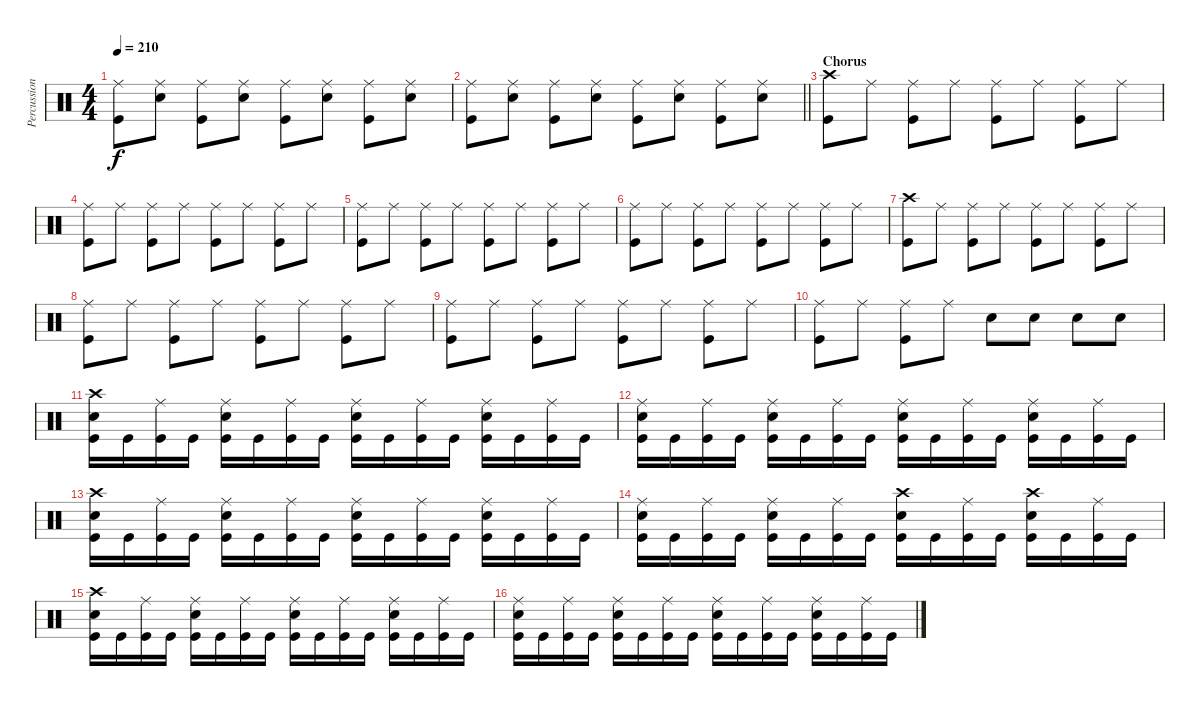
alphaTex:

\track ("Percussion" "Percussion") {instrument percussion}
\staff {score}
\articulation defaults
\ts (4 4)
\tempo 210
\clef neutral
\ks c
("Ride (middle)" "Kick (hit)").8{dy f} ("Ride (middle)" "Snare (hit) 2").8 ("Ride (middle)" "Kick (hit)").8 ("Ride (middle)" "Snare (hit) 2").8 ("Ride (middle)" "Kick (hit)").8 ("Ride (middle)" "Snare (hit) 2").8 ("Ride (middle)" "Kick (hit)").8 ("Ride (middle)" "Snare (hit) 2").8 |
\barLineRight lightlight
("Ride (middle)" "Kick (hit)").8 ("Ride (middle)" "Snare (hit) 2").8 ("Ride (middle)" "Kick (hit)").8 ("Ride (middle)" "Snare (hit) 2").8 ("Ride (middle)" "Kick (hit)").8 ("Ride (middle)" "Snare (hit) 2").8 ("Ride (middle)" "Kick (hit)").8 ("Ride (middle)" "Snare (hit) 2").8 |
\section ("" "Chorus")
("Crash high (hit)" "Kick (hit)").8 "Ride (middle)".8 ("Ride (middle)" "Kick (hit)").8 "Ride (middle)".8 ("Ride (middle)" "Kick (hit)").8 "Ride (middle)".8 ("Ride (middle)" "Kick (hit)").8 "Ride (middle)".8 |
("Ride (middle)" "Kick (hit)").8 "Ride (middle)".8 ("Ride (middle)" "Kick (hit)").8 "Ride (middle)".8 ("Ride (middle)" "Kick (hit)").8 "Ride (middle)".8 ("Ride (middle)" "Kick (hit)").8 "Ride (middle)".8 |
("Ride (middle)" "Kick (hit)").8 "Ride (middle)".8 ("Ride (middle)" "Kick (hit)").8 "Ride (middle)".8 ("Ride (middle)" "Kick (hit)").8 "Ride (middle)".8 ("Ride (middle)" "Kick (hit)").8 "Ride (middle)".8 |
("Ride (middle)" "Kick (hit)").8 "Ride (middle)".8 ("Ride (middle)" "Kick (hit)").8 "Ride (middle)".8 ("Ride (middle)" "Kick (hit)").8 "Ride (middle)".8 ("Ride (middle)" "Kick (hit)").8 "Ride (middle)".8 |
("Crash high (hit)" "Kick (hit)").8 "Ride (middle)".8 ("Ride (middle)" "Kick (hit)").8 "Ride (middle)".8 ("Ride (middle)" "Kick (hit)").8 "Ride (middle)".8 ("Ride (middle)" "Kick (hit)").8 "Ride (middle)".8 |
("Ride (middle)" "Kick (hit)").8 "Ride (middle)".8 ("Ride (middle)" "Kick (hit)").8 "Ride (middle)".8 ("Ride (middle)" "Kick (hit)").8 "Ride (middle)".8 ("Ride (middle)" "Kick (hit)").8 "Ride (middle)".8 |
("Ride (middle)" "Kick (hit)").8 "Ride (middle)".8 ("Ride (middle)" "Kick (hit)").8 "Ride (middle)".8 ("Ride (middle)" "Kick (hit)").8 "Ride (middle)".8 ("Ride (middle)" "Kick (hit)").8 "Ride (middle)".8 |
("Ride (middle)" "Kick (hit)").8 "Ride (middle)".8 ("Ride (middle)" "Kick (hit)").8 "Ride (middle)".8 "Snare (hit) 2".8 "Snare (hit) 2".8 "Snare (hit) 2".8 "Snare (hit) 2".8 |
("Crash high (hit)" "Snare (hit) 2" "Kick (hit)").16 "Kick (hit)".16 ("Ride (middle)" "Kick (hit)").16 "Kick (hit)".16 ("Ride (middle)" "Snare (hit) 2" "Kick (hit)").16 "Kick (hit)".16 ("Ride (middle)" "Kick (hit)").16 "Kick (hit)".16 ("Ride (middle)" "Snare (hit) 2" "Kick (hit)").16 "Kick (hit)".16 ("Ride (middle)" "Kick (hit)").16 "Kick (hit)".16 ("Ride (middle)" "Snare (hit) 2" "Kick (hit)").16 "Kick (hit)".16 ("Ride (middle)" "Kick (hit)").16 "Kick (hit)".16 |
("Ride (middle)" "Snare (hit) 2" "Kick (hit)").16 "Kick (hit)".16 ("Ride (middle)" "Kick (hit)").16 "Kick (hit)".16 ("Ride (middle)" "Snare (hit) 2" "Kick (hit)").16 "Kick (hit)".16 ("Ride (middle)" "Kick (hit)").16 "Kick (hit)".16 ("Ride (middle)" "Snare (hit) 2" "Kick (hit)").16 "Kick (hit)".16 ("Ride (middle)" "Kick (hit)").16 "Kick (hit)".16 ("Ride (middle)" "Snare (hit) 2" "Kick (hit)").16 "Kick (hit)".16 ("Ride (middle)" "Kick (hit)").16 "Kick (hit)".16 |
("Crash high (hit)" "Snare (hit) 2" "Kick (hit)").16 "Kick (hit)".16 ("Ride (middle)" "Kick (hit)").16 "Kick (hit)".16 ("Ride (middle)" "Snare (hit) 2" "Kick (hit)").16 "Kick (hit)".16 ("Ride (middle)" "Kick (hit)").16 "Kick (hit)".16 ("Ride (middle)" "Snare (hit) 2" "Kick (hit)").16 "Kick (hit)".16 ("Ride (middle)" "Kick (hit)").16 "Kick (hit)".16 ("Ride (middle)" "Snare (hit) 2" "Kick (hit)").16 "Kick (hit)".16 ("Ride (middle)" "Kick (hit)").16 "Kick (hit)".16 |
("Ride (middle)" "Snare (hit) 2" "Kick (hit)").16 "Kick (hit)".16 ("Ride (middle)" "Kick (hit)").16 "Kick (hit)".16 ("Ride (middle)" "Snare (hit) 2" "Kick (hit)").16 "Kick (hit)".16 ("Ride (middle)" "Kick (hit)").16 "Kick (hit)".16 ("Crash high (hit)" "Snare (hit) 2" "Kick (hit)").16 "Kick (hit)".16 ("Ride (middle)" "Kick (hit)").16 "Kick (hit)".16 ("Crash high (hit)" "Snare (hit) 2" "Kick (hit)").16 "Kick (hit)".16 ("Ride (middle)" "Kick (hit)").16 "Kick (hit)".16 |
("Crash high (hit)" "Snare (hit) 2" "Kick (hit)").16 "Kick (hit)".16 ("Ride (middle)" "Kick (hit)").16 "Kick (hit)".16 ("Ride (middle)" "Snare (hit) 2" "Kick (hit)").16 "Kick (hit)".16 ("Ride (middle)" "Kick (hit)").16 "Kick (hit)".16 ("Ride (middle)" "Snare (hit) 2" "Kick (hit)").16 "Kick (hit)".16 ("Ride (middle)" "Kick (hit)").16 "Kick (hit)".16 ("Ride (middle)" "Snare (hit) 2" "Kick (hit)").16 "Kick (hit)".16 ("Ride (middle)" "Kick (hit)").16 "Kick (hit)".16 |
("Ride (middle)" "Snare (hit) 2" "Kick (hit)").16 "Kick (hit)".16 ("Ride (middle)" "Kick (hit)").16 "Kick (hit)".16 ("Ride (middle)" "Snare (hit) 2" "Kick (hit)").16 "Kick (hit)".16 ("Ride (middle)" "Kick (hit)").16 "Kick (hit)".16 ("Ride (middle)" "Snare (hit) 2" "Kick (hit)").16 "Kick (hit)".16 ("Ride (middle)" "Kick (hit)").16 "Kick (hit)".16 ("Ride (middle)" "Snare (hit) 2" "Kick (hit)").16 "Kick (hit)".16 ("Ride (middle)" "Kick (hit)").16 "Kick (hit)".16
